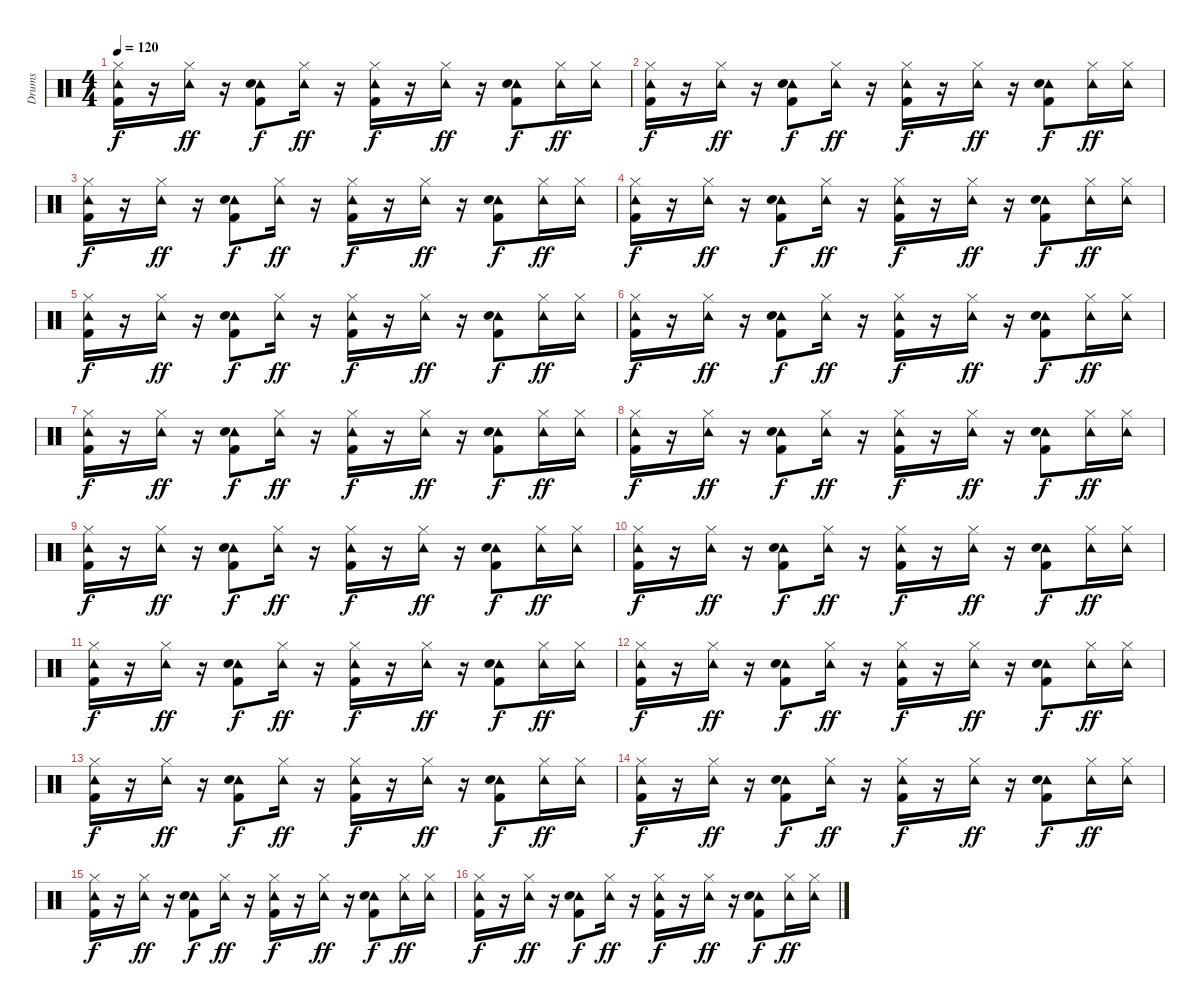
\track ("Drums" "Drums") {instrument percussion}
\staff {score}
\articulation defaults
\ts (4 4)
\tempo 120
\clef neutral
\ks c
("Hi-Hat (closed)" "Tambourine (hit)" "Kick (hit) 2").16{dy f} r.16 ("Hi-Hat (closed)" "Tambourine (hit)").16{dy ff} r.16 ("Tambourine (hit)" "Electric Snare (hit)" "Kick (hit) 2").8{dy f} ("Hi-Hat (closed)" "Tambourine (hit)").16{dy ff} r.16 ("Hi-Hat (closed)" "Tambourine (hit)" "Kick (hit) 2").16{dy f} r.16 ("Hi-Hat (closed)" "Tambourine (hit)").16{dy ff} r.16 ("Tambourine (hit)" "Electric Snare (hit)" "Kick (hit) 2").8{dy f} ("Hi-Hat (closed)" "Tambourine (hit)").16{dy ff} ("Hi-Hat (closed)" "Tambourine (hit)").16 |
("Hi-Hat (closed)" "Tambourine (hit)" "Kick (hit) 2").16{dy f} r.16 ("Hi-Hat (closed)" "Tambourine (hit)").16{dy ff} r.16 ("Tambourine (hit)" "Electric Snare (hit)" "Kick (hit) 2").8{dy f} ("Hi-Hat (closed)" "Tambourine (hit)").16{dy ff} r.16 ("Hi-Hat (closed)" "Tambourine (hit)" "Kick (hit) 2").16{dy f} r.16 ("Hi-Hat (closed)" "Tambourine (hit)").16{dy ff} r.16 ("Tambourine (hit)" "Electric Snare (hit)" "Kick (hit) 2").8{dy f} ("Hi-Hat (closed)" "Tambourine (hit)").16{dy ff} ("Hi-Hat (closed)" "Tambourine (hit)").16 |
("Hi-Hat (closed)" "Tambourine (hit)" "Kick (hit) 2").16{dy f} r.16 ("Hi-Hat (closed)" "Tambourine (hit)").16{dy ff} r.16 ("Tambourine (hit)" "Electric Snare (hit)" "Kick (hit) 2").8{dy f} ("Hi-Hat (closed)" "Tambourine (hit)").16{dy ff} r.16 ("Hi-Hat (closed)" "Tambourine (hit)" "Kick (hit) 2").16{dy f} r.16 ("Hi-Hat (closed)" "Tambourine (hit)").16{dy ff} r.16 ("Tambourine (hit)" "Electric Snare (hit)" "Kick (hit) 2").8{dy f} ("Hi-Hat (closed)" "Tambourine (hit)").16{dy ff} ("Hi-Hat (closed)" "Tambourine (hit)").16 |
("Hi-Hat (closed)" "Tambourine (hit)" "Kick (hit) 2").16{dy f} r.16 ("Hi-Hat (closed)" "Tambourine (hit)").16{dy ff} r.16 ("Tambourine (hit)" "Electric Snare (hit)" "Kick (hit) 2").8{dy f} ("Hi-Hat (closed)" "Tambourine (hit)").16{dy ff} r.16 ("Hi-Hat (closed)" "Tambourine (hit)" "Kick (hit) 2").16{dy f} r.16 ("Hi-Hat (closed)" "Tambourine (hit)").16{dy ff} r.16 ("Tambourine (hit)" "Electric Snare (hit)" "Kick (hit) 2").8{dy f} ("Hi-Hat (closed)" "Tambourine (hit)").16{dy ff} ("Hi-Hat (closed)" "Tambourine (hit)").16 |
("Hi-Hat (closed)" "Tambourine (hit)" "Kick (hit) 2").16{dy f} r.16 ("Hi-Hat (closed)" "Tambourine (hit)").16{dy ff} r.16 ("Tambourine (hit)" "Electric Snare (hit)" "Kick (hit) 2").8{dy f} ("Hi-Hat (closed)" "Tambourine (hit)").16{dy ff} r.16 ("Hi-Hat (closed)" "Tambourine (hit)" "Kick (hit) 2").16{dy f} r.16 ("Hi-Hat (closed)" "Tambourine (hit)").16{dy ff} r.16 ("Tambourine (hit)" "Electric Snare (hit)" "Kick (hit) 2").8{dy f} ("Hi-Hat (closed)" "Tambourine (hit)").16{dy ff} ("Hi-Hat (closed)" "Tambourine (hit)").16 |
("Hi-Hat (closed)" "Tambourine (hit)" "Kick (hit) 2").16{dy f} r.16 ("Hi-Hat (closed)" "Tambourine (hit)").16{dy ff} r.16 ("Tambourine (hit)" "Electric Snare (hit)" "Kick (hit) 2").8{dy f} ("Hi-Hat (closed)" "Tambourine (hit)").16{dy ff} r.16 ("Hi-Hat (closed)" "Tambourine (hit)" "Kick (hit) 2").16{dy f} r.16 ("Hi-Hat (closed)" "Tambourine (hit)").16{dy ff} r.16 ("Tambourine (hit)" "Electric Snare (hit)" "Kick (hit) 2").8{dy f} ("Hi-Hat (closed)" "Tambourine (hit)").16{dy ff} ("Hi-Hat (closed)" "Tambourine (hit)").16 |
("Hi-Hat (closed)" "Tambourine (hit)" "Kick (hit) 2").16{dy f} r.16 ("Hi-Hat (closed)" "Tambourine (hit)").16{dy ff} r.16 ("Tambourine (hit)" "Electric Snare (hit)" "Kick (hit) 2").8{dy f} ("Hi-Hat (closed)" "Tambourine (hit)").16{dy ff} r.16 ("Hi-Hat (closed)" "Tambourine (hit)" "Kick (hit) 2").16{dy f} r.16 ("Hi-Hat (closed)" "Tambourine (hit)").16{dy ff} r.16 ("Tambourine (hit)" "Electric Snare (hit)" "Kick (hit) 2").8{dy f} ("Hi-Hat (closed)" "Tambourine (hit)").16{dy ff} ("Hi-Hat (closed)" "Tambourine (hit)").16 |
("Hi-Hat (closed)" "Tambourine (hit)" "Kick (hit) 2").16{dy f} r.16 ("Hi-Hat (closed)" "Tambourine (hit)").16{dy ff} r.16 ("Tambourine (hit)" "Electric Snare (hit)" "Kick (hit) 2").8{dy f} ("Hi-Hat (closed)" "Tambourine (hit)").16{dy ff} r.16 ("Hi-Hat (closed)" "Tambourine (hit)" "Kick (hit) 2").16{dy f} r.16 ("Hi-Hat (closed)" "Tambourine (hit)").16{dy ff} r.16 ("Tambourine (hit)" "Electric Snare (hit)" "Kick (hit) 2").8{dy f} ("Hi-Hat (closed)" "Tambourine (hit)").16{dy ff} ("Hi-Hat (closed)" "Tambourine (hit)").16 |
("Hi-Hat (closed)" "Tambourine (hit)" "Kick (hit) 2").16{dy f} r.16 ("Hi-Hat (closed)" "Tambourine (hit)").16{dy ff} r.16 ("Tambourine (hit)" "Electric Snare (hit)" "Kick (hit) 2").8{dy f} ("Hi-Hat (closed)" "Tambourine (hit)").16{dy ff} r.16 ("Hi-Hat (closed)" "Tambourine (hit)" "Kick (hit) 2").16{dy f} r.16 ("Hi-Hat (closed)" "Tambourine (hit)").16{dy ff} r.16 ("Tambourine (hit)" "Electric Snare (hit)" "Kick (hit) 2").8{dy f} ("Hi-Hat (closed)" "Tambourine (hit)").16{dy ff} ("Hi-Hat (closed)" "Tambourine (hit)").16 |
("Hi-Hat (closed)" "Tambourine (hit)" "Kick (hit) 2").16{dy f} r.16 ("Hi-Hat (closed)" "Tambourine (hit)").16{dy ff} r.16 ("Tambourine (hit)" "Electric Snare (hit)" "Kick (hit) 2").8{dy f} ("Hi-Hat (closed)" "Tambourine (hit)").16{dy ff} r.16 ("Hi-Hat (closed)" "Tambourine (hit)" "Kick (hit) 2").16{dy f} r.16 ("Hi-Hat (closed)" "Tambourine (hit)").16{dy ff} r.16 ("Tambourine (hit)" "Electric Snare (hit)" "Kick (hit) 2").8{dy f} ("Hi-Hat (closed)" "Tambourine (hit)").16{dy ff} ("Hi-Hat (closed)" "Tambourine (hit)").16 |
("Hi-Hat (closed)" "Tambourine (hit)" "Kick (hit) 2").16{dy f} r.16 ("Hi-Hat (closed)" "Tambourine (hit)").16{dy ff} r.16 ("Tambourine (hit)" "Electric Snare (hit)" "Kick (hit) 2").8{dy f} ("Hi-Hat (closed)" "Tambourine (hit)").16{dy ff} r.16 ("Hi-Hat (closed)" "Tambourine (hit)" "Kick (hit) 2").16{dy f} r.16 ("Hi-Hat (closed)" "Tambourine (hit)").16{dy ff} r.16 ("Tambourine (hit)" "Electric Snare (hit)" "Kick (hit) 2").8{dy f} ("Hi-Hat (closed)" "Tambourine (hit)").16{dy ff} ("Hi-Hat (closed)" "Tambourine (hit)").16 |
("Hi-Hat (closed)" "Tambourine (hit)" "Kick (hit) 2").16{dy f} r.16 ("Hi-Hat (closed)" "Tambourine (hit)").16{dy ff} r.16 ("Tambourine (hit)" "Electric Snare (hit)" "Kick (hit) 2").8{dy f} ("Hi-Hat (closed)" "Tambourine (hit)").16{dy ff} r.16 ("Hi-Hat (closed)" "Tambourine (hit)" "Kick (hit) 2").16{dy f} r.16 ("Hi-Hat (closed)" "Tambourine (hit)").16{dy ff} r.16 ("Tambourine (hit)" "Electric Snare (hit)" "Kick (hit) 2").8{dy f} ("Hi-Hat (closed)" "Tambourine (hit)").16{dy ff} ("Hi-Hat (closed)" "Tambourine (hit)").16 |
("Hi-Hat (closed)" "Tambourine (hit)" "Kick (hit) 2").16{dy f} r.16 ("Hi-Hat (closed)" "Tambourine (hit)").16{dy ff} r.16 ("Tambourine (hit)" "Electric Snare (hit)" "Kick (hit) 2").8{dy f} ("Hi-Hat (closed)" "Tambourine (hit)").16{dy ff} r.16 ("Hi-Hat (closed)" "Tambourine (hit)" "Kick (hit) 2").16{dy f} r.16 ("Hi-Hat (closed)" "Tambourine (hit)").16{dy ff} r.16 ("Tambourine (hit)" "Electric Snare (hit)" "Kick (hit) 2").8{dy f} ("Hi-Hat (closed)" "Tambourine (hit)").16{dy ff} ("Hi-Hat (closed)" "Tambourine (hit)").16 |
("Hi-Hat (closed)" "Tambourine (hit)" "Kick (hit) 2").16{dy f} r.16 ("Hi-Hat (closed)" "Tambourine (hit)").16{dy ff} r.16 ("Tambourine (hit)" "Electric Snare (hit)" "Kick (hit) 2").8{dy f} ("Hi-Hat (closed)" "Tambourine (hit)").16{dy ff} r.16 ("Hi-Hat (closed)" "Tambourine (hit)" "Kick (hit) 2").16{dy f} r.16 ("Hi-Hat (closed)" "Tambourine (hit)").16{dy ff} r.16 ("Tambourine (hit)" "Electric Snare (hit)" "Kick (hit) 2").8{dy f} ("Hi-Hat (closed)" "Tambourine (hit)").16{dy ff} ("Hi-Hat (closed)" "Tambourine (hit)").16 |
("Hi-Hat (closed)" "Tambourine (hit)" "Kick (hit) 2").16{dy f} r.16 ("Hi-Hat (closed)" "Tambourine (hit)").16{dy ff} r.16 ("Tambourine (hit)" "Electric Snare (hit)" "Kick (hit) 2").8{dy f} ("Hi-Hat (closed)" "Tambourine (hit)").16{dy ff} r.16 ("Hi-Hat (closed)" "Tambourine (hit)" "Kick (hit) 2").16{dy f} r.16 ("Hi-Hat (closed)" "Tambourine (hit)").16{dy ff} r.16 ("Tambourine (hit)" "Electric Snare (hit)" "Kick (hit) 2").8{dy f} ("Hi-Hat (closed)" "Tambourine (hit)").16{dy ff} ("Hi-Hat (closed)" "Tambourine (hit)").16 |
("Hi-Hat (closed)" "Tambourine (hit)" "Kick (hit) 2").16{dy f} r.16 ("Hi-Hat (closed)" "Tambourine (hit)").16{dy ff} r.16 ("Tambourine (hit)" "Electric Snare (hit)" "Kick (hit) 2").8{dy f} ("Hi-Hat (closed)" "Tambourine (hit)").16{dy ff} r.16 ("Hi-Hat (closed)" "Tambourine (hit)" "Kick (hit) 2").16{dy f} r.16 ("Hi-Hat (closed)" "Tambourine (hit)").16{dy ff} r.16 ("Tambourine (hit)" "Electric Snare (hit)" "Kick (hit) 2").8{dy f} ("Hi-Hat (closed)" "Tambourine (hit)").16{dy ff} ("Hi-Hat (closed)" "Tambourine (hit)").16
